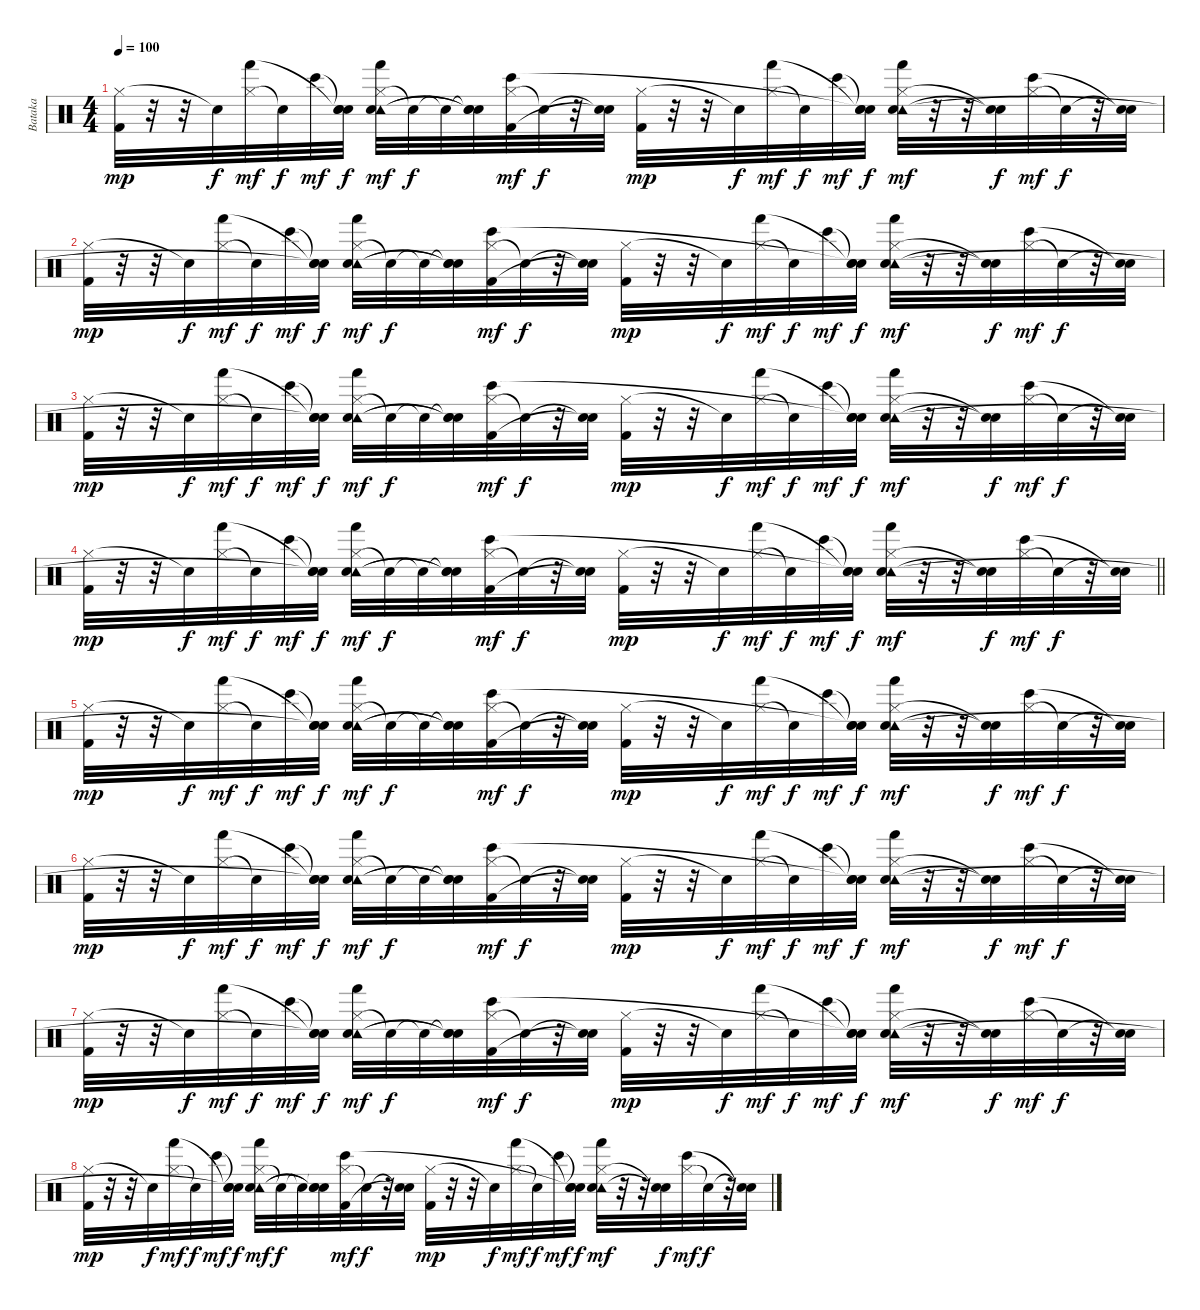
\track ("Bataka" "Bataka") {instrument percussion}
\staff {score}
\articulation defaults
\ts (4 4)
\tempo 100
\clef neutral
\ks c
("Hi-Hat (closed)" "Kick (hit) 2").32{dy mp} r.32 r.32 "Snare (hit)"{t}.32{dy f} ("Hi-Hat (closed)" "Hand (hit)").32{dy mf} "Snare (hit)"{t}.32{dy f} "Bongo High (hit)".32{dy mf} ("Snare (hit)"{t} "Snare (hit)"{t} "Snare (hit)"{t}).32{dy f} ("Hi-Hat (closed)" "Tambourine (hit)" "Electric Snare (hit)" "Hand (hit)").32{dy mf} "Snare (hit)"{t}.32{dy f} "Snare (hit)"{t}.32 ("Snare (hit)"{t} "Snare (hit)"{t} "Snare (hit)"{t}).32 ("Hi-Hat (closed)" "Kick (hit) 2" "Bongo High (hit)").32{dy mf} "Snare (hit)"{t}.32{dy f} r.32 ("Snare (hit)"{t} "Snare (hit)"{t}).32 ("Hi-Hat (closed)" "Kick (hit) 2").32{dy mp} r.32 r.32 "Snare (hit)"{t}.32{dy f} ("Hi-Hat (closed)" "Hand (hit)").32{dy mf} "Snare (hit)"{t}.32{dy f} "Bongo High (hit)".32{dy mf} ("Snare (hit)"{t} "Snare (hit)"{t} "Snare (hit)"{t}).32{dy f} ("Hi-Hat (closed)" "Tambourine (hit)" "Electric Snare (hit)" "Hand (hit)").32{dy mf} r.32 r.32 ("Snare (hit)"{t} "Snare (hit)"{t}).32{dy f} ("Hi-Hat (closed)" "Bongo High (hit)").32{dy mf} "Snare (hit)"{t}.32{dy f} r.32 ("Snare (hit)"{t} "Snare (hit)"{t}).32 |
("Hi-Hat (closed)" "Kick (hit) 2").32{dy mp} r.32 r.32 "Snare (hit)"{t}.32{dy f} ("Hi-Hat (closed)" "Hand (hit)").32{dy mf} "Snare (hit)"{t}.32{dy f} "Bongo High (hit)".32{dy mf} ("Snare (hit)"{t} "Snare (hit)"{t} "Snare (hit)"{t}).32{dy f} ("Hi-Hat (closed)" "Tambourine (hit)" "Electric Snare (hit)" "Hand (hit)").32{dy mf} "Snare (hit)"{t}.32{dy f} "Snare (hit)"{t}.32 ("Snare (hit)"{t} "Snare (hit)"{t} "Snare (hit)"{t}).32 ("Hi-Hat (closed)" "Kick (hit) 2" "Bongo High (hit)").32{dy mf} "Snare (hit)"{t}.32{dy f} r.32 ("Snare (hit)"{t} "Snare (hit)"{t}).32 ("Hi-Hat (closed)" "Kick (hit) 2").32{dy mp} r.32 r.32 "Snare (hit)"{t}.32{dy f} ("Hi-Hat (closed)" "Hand (hit)").32{dy mf} "Snare (hit)"{t}.32{dy f} "Bongo High (hit)".32{dy mf} ("Snare (hit)"{t} "Snare (hit)"{t} "Snare (hit)"{t}).32{dy f} ("Hi-Hat (closed)" "Tambourine (hit)" "Electric Snare (hit)" "Hand (hit)").32{dy mf} r.32 r.32 ("Snare (hit)"{t} "Snare (hit)"{t}).32{dy f} ("Hi-Hat (closed)" "Bongo High (hit)").32{dy mf} "Snare (hit)"{t}.32{dy f} r.32 ("Snare (hit)"{t} "Snare (hit)"{t}).32 |
("Hi-Hat (closed)" "Kick (hit) 2").32{dy mp} r.32 r.32 "Snare (hit)"{t}.32{dy f} ("Hi-Hat (closed)" "Hand (hit)").32{dy mf} "Snare (hit)"{t}.32{dy f} "Bongo High (hit)".32{dy mf} ("Snare (hit)"{t} "Snare (hit)"{t} "Snare (hit)"{t}).32{dy f} ("Hi-Hat (closed)" "Tambourine (hit)" "Electric Snare (hit)" "Hand (hit)").32{dy mf} "Snare (hit)"{t}.32{dy f} "Snare (hit)"{t}.32 ("Snare (hit)"{t} "Snare (hit)"{t} "Snare (hit)"{t}).32 ("Hi-Hat (closed)" "Kick (hit) 2" "Bongo High (hit)").32{dy mf} "Snare (hit)"{t}.32{dy f} r.32 ("Snare (hit)"{t} "Snare (hit)"{t}).32 ("Hi-Hat (closed)" "Kick (hit) 2").32{dy mp} r.32 r.32 "Snare (hit)"{t}.32{dy f} ("Hi-Hat (closed)" "Hand (hit)").32{dy mf} "Snare (hit)"{t}.32{dy f} "Bongo High (hit)".32{dy mf} ("Snare (hit)"{t} "Snare (hit)"{t} "Snare (hit)"{t}).32{dy f} ("Hi-Hat (closed)" "Tambourine (hit)" "Electric Snare (hit)" "Hand (hit)").32{dy mf} r.32 r.32 ("Snare (hit)"{t} "Snare (hit)"{t}).32{dy f} ("Hi-Hat (closed)" "Bongo High (hit)").32{dy mf} "Snare (hit)"{t}.32{dy f} r.32 ("Snare (hit)"{t} "Snare (hit)"{t}).32 |
\barLineRight lightlight
("Hi-Hat (closed)" "Kick (hit) 2").32{dy mp} r.32 r.32 "Snare (hit)"{t}.32{dy f} ("Hi-Hat (closed)" "Hand (hit)").32{dy mf} "Snare (hit)"{t}.32{dy f} "Bongo High (hit)".32{dy mf} ("Snare (hit)"{t} "Snare (hit)"{t} "Snare (hit)"{t}).32{dy f} ("Hi-Hat (closed)" "Tambourine (hit)" "Electric Snare (hit)" "Hand (hit)").32{dy mf} "Snare (hit)"{t}.32{dy f} "Snare (hit)"{t}.32 ("Snare (hit)"{t} "Snare (hit)"{t} "Snare (hit)"{t}).32 ("Hi-Hat (closed)" "Kick (hit) 2" "Bongo High (hit)").32{dy mf} "Snare (hit)"{t}.32{dy f} r.32 ("Snare (hit)"{t} "Snare (hit)"{t}).32 ("Hi-Hat (closed)" "Kick (hit) 2").32{dy mp} r.32 r.32 "Snare (hit)"{t}.32{dy f} ("Hi-Hat (closed)" "Hand (hit)").32{dy mf} "Snare (hit)"{t}.32{dy f} "Bongo High (hit)".32{dy mf} ("Snare (hit)"{t} "Snare (hit)"{t} "Snare (hit)"{t}).32{dy f} ("Hi-Hat (closed)" "Tambourine (hit)" "Electric Snare (hit)" "Hand (hit)").32{dy mf} r.32 r.32 ("Snare (hit)"{t} "Snare (hit)"{t}).32{dy f} ("Hi-Hat (closed)" "Bongo High (hit)").32{dy mf} "Snare (hit)"{t}.32{dy f} r.32 ("Snare (hit)"{t} "Snare (hit)"{t}).32 |
("Hi-Hat (closed)" "Kick (hit) 2").32{dy mp} r.32 r.32 "Snare (hit)"{t}.32{dy f} ("Hi-Hat (closed)" "Hand (hit)").32{dy mf} "Snare (hit)"{t}.32{dy f} "Bongo High (hit)".32{dy mf} ("Snare (hit)"{t} "Snare (hit)"{t} "Snare (hit)"{t}).32{dy f} ("Hi-Hat (closed)" "Tambourine (hit)" "Electric Snare (hit)" "Hand (hit)").32{dy mf} "Snare (hit)"{t}.32{dy f} "Snare (hit)"{t}.32 ("Snare (hit)"{t} "Snare (hit)"{t} "Snare (hit)"{t}).32 ("Hi-Hat (closed)" "Kick (hit) 2" "Bongo High (hit)").32{dy mf} "Snare (hit)"{t}.32{dy f} r.32 ("Snare (hit)"{t} "Snare (hit)"{t}).32 ("Hi-Hat (closed)" "Kick (hit) 2").32{dy mp} r.32 r.32 "Snare (hit)"{t}.32{dy f} ("Hi-Hat (closed)" "Hand (hit)").32{dy mf} "Snare (hit)"{t}.32{dy f} "Bongo High (hit)".32{dy mf} ("Snare (hit)"{t} "Snare (hit)"{t} "Snare (hit)"{t}).32{dy f} ("Hi-Hat (closed)" "Tambourine (hit)" "Electric Snare (hit)" "Hand (hit)").32{dy mf} r.32 r.32 ("Snare (hit)"{t} "Snare (hit)"{t}).32{dy f} ("Hi-Hat (closed)" "Bongo High (hit)").32{dy mf} "Snare (hit)"{t}.32{dy f} r.32 ("Snare (hit)"{t} "Snare (hit)"{t}).32 |
("Hi-Hat (closed)" "Kick (hit) 2").32{dy mp} r.32 r.32 "Snare (hit)"{t}.32{dy f} ("Hi-Hat (closed)" "Hand (hit)").32{dy mf} "Snare (hit)"{t}.32{dy f} "Bongo High (hit)".32{dy mf} ("Snare (hit)"{t} "Snare (hit)"{t} "Snare (hit)"{t}).32{dy f} ("Hi-Hat (closed)" "Tambourine (hit)" "Electric Snare (hit)" "Hand (hit)").32{dy mf} "Snare (hit)"{t}.32{dy f} "Snare (hit)"{t}.32 ("Snare (hit)"{t} "Snare (hit)"{t} "Snare (hit)"{t}).32 ("Hi-Hat (closed)" "Kick (hit) 2" "Bongo High (hit)").32{dy mf} "Snare (hit)"{t}.32{dy f} r.32 ("Snare (hit)"{t} "Snare (hit)"{t}).32 ("Hi-Hat (closed)" "Kick (hit) 2").32{dy mp} r.32 r.32 "Snare (hit)"{t}.32{dy f} ("Hi-Hat (closed)" "Hand (hit)").32{dy mf} "Snare (hit)"{t}.32{dy f} "Bongo High (hit)".32{dy mf} ("Snare (hit)"{t} "Snare (hit)"{t} "Snare (hit)"{t}).32{dy f} ("Hi-Hat (closed)" "Tambourine (hit)" "Electric Snare (hit)" "Hand (hit)").32{dy mf} r.32 r.32 ("Snare (hit)"{t} "Snare (hit)"{t}).32{dy f} ("Hi-Hat (closed)" "Bongo High (hit)").32{dy mf} "Snare (hit)"{t}.32{dy f} r.32 ("Snare (hit)"{t} "Snare (hit)"{t}).32 |
("Hi-Hat (closed)" "Kick (hit) 2").32{dy mp} r.32 r.32 "Snare (hit)"{t}.32{dy f} ("Hi-Hat (closed)" "Hand (hit)").32{dy mf} "Snare (hit)"{t}.32{dy f} "Bongo High (hit)".32{dy mf} ("Snare (hit)"{t} "Snare (hit)"{t} "Snare (hit)"{t}).32{dy f} ("Hi-Hat (closed)" "Tambourine (hit)" "Electric Snare (hit)" "Hand (hit)").32{dy mf} "Snare (hit)"{t}.32{dy f} "Snare (hit)"{t}.32 ("Snare (hit)"{t} "Snare (hit)"{t} "Snare (hit)"{t}).32 ("Hi-Hat (closed)" "Kick (hit) 2" "Bongo High (hit)").32{dy mf} "Snare (hit)"{t}.32{dy f} r.32 ("Snare (hit)"{t} "Snare (hit)"{t}).32 ("Hi-Hat (closed)" "Kick (hit) 2").32{dy mp} r.32 r.32 "Snare (hit)"{t}.32{dy f} ("Hi-Hat (closed)" "Hand (hit)").32{dy mf} "Snare (hit)"{t}.32{dy f} "Bongo High (hit)".32{dy mf} ("Snare (hit)"{t} "Snare (hit)"{t} "Snare (hit)"{t}).32{dy f} ("Hi-Hat (closed)" "Tambourine (hit)" "Electric Snare (hit)" "Hand (hit)").32{dy mf} r.32 r.32 ("Snare (hit)"{t} "Snare (hit)"{t}).32{dy f} ("Hi-Hat (closed)" "Bongo High (hit)").32{dy mf} "Snare (hit)"{t}.32{dy f} r.32 ("Snare (hit)"{t} "Snare (hit)"{t}).32 |
("Hi-Hat (closed)" "Kick (hit) 2").32{dy mp} r.32 r.32 "Snare (hit)"{t}.32{dy f} ("Hi-Hat (closed)" "Hand (hit)").32{dy mf} "Snare (hit)"{t}.32{dy f} "Bongo High (hit)".32{dy mf} ("Snare (hit)"{t} "Snare (hit)"{t} "Snare (hit)"{t}).32{dy f} ("Hi-Hat (closed)" "Tambourine (hit)" "Electric Snare (hit)" "Hand (hit)").32{dy mf} "Snare (hit)"{t}.32{dy f} "Snare (hit)"{t}.32 ("Snare (hit)"{t} "Snare (hit)"{t} "Snare (hit)"{t}).32 ("Hi-Hat (closed)" "Kick (hit) 2" "Bongo High (hit)").32{dy mf} "Snare (hit)"{t}.32{dy f} r.32 ("Snare (hit)"{t} "Snare (hit)"{t}).32 ("Hi-Hat (closed)" "Kick (hit) 2").32{dy mp} r.32 r.32 "Snare (hit)"{t}.32{dy f} ("Hi-Hat (closed)" "Hand (hit)").32{dy mf} "Snare (hit)"{t}.32{dy f} "Bongo High (hit)".32{dy mf} ("Snare (hit)"{t} "Snare (hit)"{t} "Snare (hit)"{t}).32{dy f} ("Hi-Hat (closed)" "Tambourine (hit)" "Electric Snare (hit)" "Hand (hit)").32{dy mf} r.32 r.32 ("Snare (hit)"{t} "Snare (hit)"{t}).32{dy f} ("Hi-Hat (closed)" "Bongo High (hit)").32{dy mf} "Snare (hit)"{t}.32{dy f} r.32 ("Snare (hit)"{t} "Snare (hit)"{t}).32
